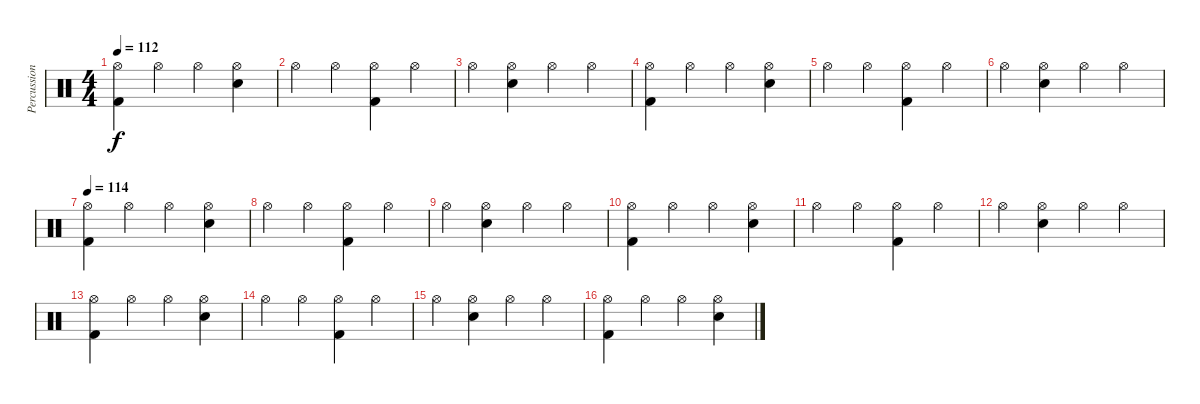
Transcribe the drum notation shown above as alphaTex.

\track ("Percussion" "Percussion") {instrument percussion}
\staff {score}
\articulation defaults
\ts (4 4)
\tempo 112
\clef neutral
\ks c
("Kick (hit) 2" "Hi-Hat (open)").4{dy f} "Hi-Hat (open)".4 "Hi-Hat (open)".4 ("Snare (hit) 2" "Hi-Hat (open)").4 |
"Hi-Hat (open)".4 "Hi-Hat (open)".4 ("Kick (hit) 2" "Hi-Hat (open)").4 "Hi-Hat (open)".4 |
"Hi-Hat (open)".4 ("Snare (hit) 2" "Hi-Hat (open)").4 "Hi-Hat (open)".4 "Hi-Hat (open)".4 |
("Kick (hit) 2" "Hi-Hat (open)").4 "Hi-Hat (open)".4 "Hi-Hat (open)".4 ("Snare (hit) 2" "Hi-Hat (open)").4 |
"Hi-Hat (open)".4 "Hi-Hat (open)".4 ("Kick (hit) 2" "Hi-Hat (open)").4 "Hi-Hat (open)".4 |
"Hi-Hat (open)".4 ("Snare (hit) 2" "Hi-Hat (open)").4 "Hi-Hat (open)".4 "Hi-Hat (open)".4 |
\tempo 114
("Kick (hit) 2" "Hi-Hat (open)").4 "Hi-Hat (open)".4 "Hi-Hat (open)".4 ("Snare (hit) 2" "Hi-Hat (open)").4 |
"Hi-Hat (open)".4 "Hi-Hat (open)".4 ("Kick (hit) 2" "Hi-Hat (open)").4 "Hi-Hat (open)".4 |
"Hi-Hat (open)".4 ("Snare (hit) 2" "Hi-Hat (open)").4 "Hi-Hat (open)".4 "Hi-Hat (open)".4 |
("Kick (hit) 2" "Hi-Hat (open)").4 "Hi-Hat (open)".4 "Hi-Hat (open)".4 ("Snare (hit) 2" "Hi-Hat (open)").4 |
"Hi-Hat (open)".4 "Hi-Hat (open)".4 ("Kick (hit) 2" "Hi-Hat (open)").4 "Hi-Hat (open)".4 |
"Hi-Hat (open)".4 ("Snare (hit) 2" "Hi-Hat (open)").4 "Hi-Hat (open)".4 "Hi-Hat (open)".4 |
("Kick (hit) 2" "Hi-Hat (open)").4 "Hi-Hat (open)".4 "Hi-Hat (open)".4 ("Snare (hit) 2" "Hi-Hat (open)").4 |
"Hi-Hat (open)".4 "Hi-Hat (open)".4 ("Kick (hit) 2" "Hi-Hat (open)").4 "Hi-Hat (open)".4 |
"Hi-Hat (open)".4 ("Snare (hit) 2" "Hi-Hat (open)").4 "Hi-Hat (open)".4 "Hi-Hat (open)".4 |
("Kick (hit) 2" "Hi-Hat (open)").4 "Hi-Hat (open)".4 "Hi-Hat (open)".4 ("Snare (hit) 2" "Hi-Hat (open)").4
